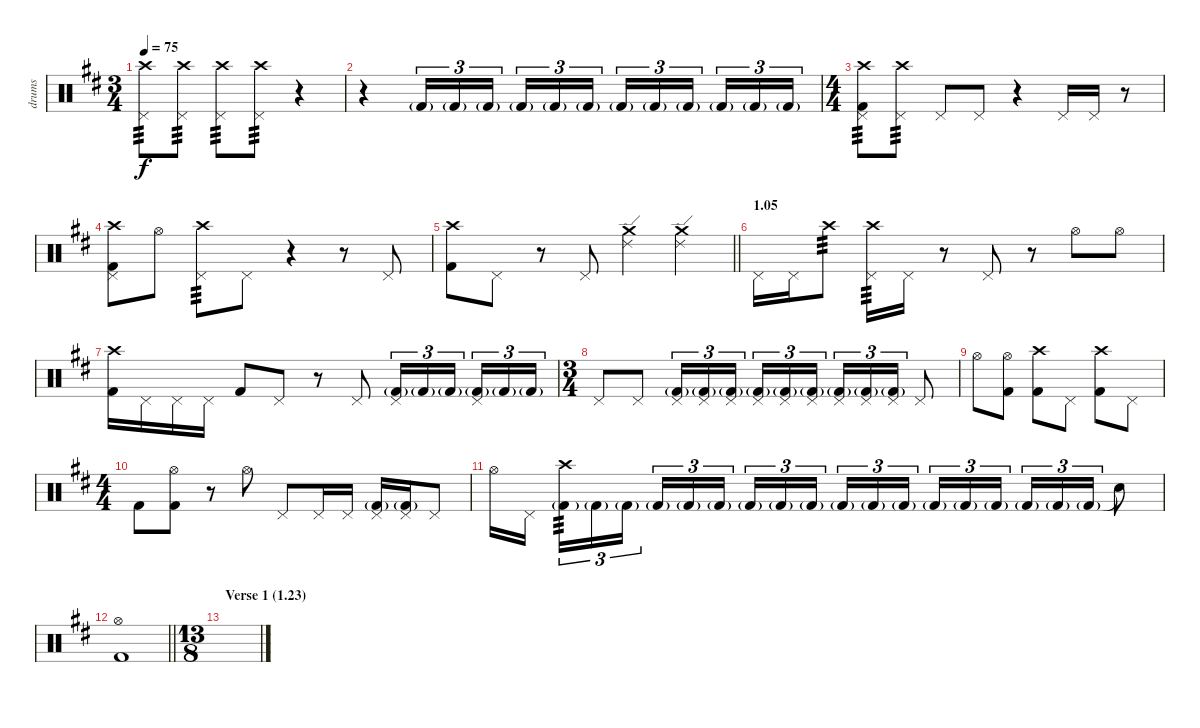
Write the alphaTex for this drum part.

\track ("drums" "drums") {instrument percussion}
\staff {score}
\articulation defaults
\ts (3 4)
\tempo 75
\clef neutral
\ks d
("Pedal Hi-Hat (hit)" "Crash high (hit)").8{tp 3 dy f} ("Pedal Hi-Hat (hit)" "Crash high (hit)").8{tp 3} ("Pedal Hi-Hat (hit)" "Crash high (hit)").8{tp 3} ("Pedal Hi-Hat (hit)" "Crash high (hit)").8{tp 3} r.4 |
r.4 "Kick (hit) 2"{g}.16{tu (3 2)} "Kick (hit) 2"{g}.16{tu (3 2)} "Kick (hit) 2"{g}.16{tu (3 2) beam splitsecondary} "Kick (hit) 2"{g}.16{tu (3 2)} "Kick (hit) 2"{g}.16{tu (3 2)} "Kick (hit) 2"{g}.16{tu (3 2)} "Kick (hit) 2"{g}.16{tu (3 2)} "Kick (hit) 2"{g}.16{tu (3 2)} "Kick (hit) 2"{g}.16{tu (3 2) beam splitsecondary} "Kick (hit) 2"{g}.16{tu (3 2)} "Kick (hit) 2"{g}.16{tu (3 2)} "Kick (hit) 2"{g}.16{tu (3 2)} |
\ts (4 4)
("Pedal Hi-Hat (hit)" "Crash high (hit)" "Kick (hit) 2").8{tp 3} ("Pedal Hi-Hat (hit)" "Crash high (hit)").8{tp 3} "Pedal Hi-Hat (hit)".8 "Pedal Hi-Hat (hit)".8 r.4 "Pedal Hi-Hat (hit)".16 "Pedal Hi-Hat (hit)".16 r.8 |
("Pedal Hi-Hat (hit)" "Crash high (hit)" "Kick (hit) 2").8 "Hi-Hat (open)".8 ("Pedal Hi-Hat (hit)" "Crash high (hit)").8{tp 3} "Pedal Hi-Hat (hit)".8 r.4 r.8 "Pedal Hi-Hat (hit)".8 |
\barLineRight lightlight
("Crash high (hit)" "Kick (hit) 2").8 "Pedal Hi-Hat (hit)".8 r.8 "Pedal Hi-Hat (hit)".8 ("Ride (edge) 2" "Crash medium (hit)").4 ("Ride (edge) 2" "Crash medium (hit)").4 |
\section ("" "1.05")
"Pedal Hi-Hat (hit)".16 "Pedal Hi-Hat (hit)".16 "Crash high (hit)".8{tp 3} ("Pedal Hi-Hat (hit)" "Crash high (hit)").16{tp 3} "Pedal Hi-Hat (hit)".16 r.8 "Pedal Hi-Hat (hit)".8 r.8 "Hi-Hat (open)".8 "Hi-Hat (open)".8 |
("Crash high (hit)" "Kick (hit) 2").16 "Pedal Hi-Hat (hit)".16 "Pedal Hi-Hat (hit)".16 "Pedal Hi-Hat (hit)".16 "Kick (hit) 2".8 "Pedal Hi-Hat (hit)".8 r.8 "Pedal Hi-Hat (hit)".8 ("Pedal Hi-Hat (hit)" "Kick (hit) 2"{g}).16{tu (3 2)} "Kick (hit) 2"{g}.16{tu (3 2)} "Kick (hit) 2"{g}.16{tu (3 2) beam splitsecondary} ("Pedal Hi-Hat (hit)" "Kick (hit) 2"{g}).16{tu (3 2)} "Kick (hit) 2"{g}.16{tu (3 2)} "Kick (hit) 2"{g}.16{tu (3 2)} |
\ts (3 4)
"Pedal Hi-Hat (hit)".8 "Pedal Hi-Hat (hit)".8 ("Pedal Hi-Hat (hit)" "Kick (hit) 2"{g}).16{tu (3 2)} ("Pedal Hi-Hat (hit)" "Kick (hit) 2"{g}).16{tu (3 2)} ("Pedal Hi-Hat (hit)" "Kick (hit) 2"{g}).16{tu (3 2) beam splitsecondary} ("Pedal Hi-Hat (hit)" "Kick (hit) 2"{g}).16{tu (3 2)} ("Pedal Hi-Hat (hit)" "Kick (hit) 2"{g}).16{tu (3 2)} ("Pedal Hi-Hat (hit)" "Kick (hit) 2"{g}).16{tu (3 2)} ("Pedal Hi-Hat (hit)" "Kick (hit) 2"{g}).16{tu (3 2)} ("Pedal Hi-Hat (hit)" "Kick (hit) 2"{g}).16{tu (3 2)} ("Pedal Hi-Hat (hit)" "Kick (hit) 2"{g}).16{tu (3 2)} "Pedal Hi-Hat (hit)".8 |
"Hi-Hat (open)".8 ("Hi-Hat (open)" "Kick (hit) 2").8 ("Crash high (hit)" "Kick (hit) 2").8 "Pedal Hi-Hat (hit)".8 ("Crash high (hit)" "Kick (hit) 2").8 "Pedal Hi-Hat (hit)".8 |
\ts (4 4)
"Kick (hit) 2".8 ("Hi-Hat (open)" "Kick (hit) 2").8 r.8 "Hi-Hat (open)".8 "Pedal Hi-Hat (hit)".8 "Pedal Hi-Hat (hit)".16 "Pedal Hi-Hat (hit)".16 ("Pedal Hi-Hat (hit)" "Kick (hit) 2"{g}).16 ("Pedal Hi-Hat (hit)" "Kick (hit) 2"{g}).16 "Pedal Hi-Hat (hit)".8 |
"Hi-Hat (open)".16 "Pedal Hi-Hat (hit)".16{beam splitsecondary} ("Crash high (hit)" "Kick (hit) 2"{g}).16{tu (3 2) tp 3} "Kick (hit) 2"{g}.16{tu (3 2)} "Kick (hit) 2"{g}.16{tu (3 2)} "Kick (hit) 2"{g}.16{tu (3 2)} "Kick (hit) 2"{g}.16{tu (3 2)} "Kick (hit) 2"{g}.16{tu (3 2) beam splitsecondary} "Kick (hit) 2"{g}.16{tu (3 2)} "Kick (hit) 2"{g}.16{tu (3 2)} "Kick (hit) 2"{g}.16{tu (3 2)} "Kick (hit) 2"{g}.16{tu (3 2)} "Kick (hit) 2"{g}.16{tu (3 2)} "Kick (hit) 2"{g}.16{tu (3 2) beam splitsecondary} "Kick (hit) 2"{g}.16{tu (3 2)} "Kick (hit) 2"{g}.16{tu (3 2)} "Kick (hit) 2"{g}.16{tu (3 2)} "Kick (hit) 2"{g}.16{tu (3 2)} "Kick (hit) 2"{g}.16{tu (3 2)} "Kick (hit) 2"{g}.16{tu (3 2)} "Snare (hit)"{t}.8 |
\barLineRight lightlight
("Hi-Hat (open)" "Kick (hit) 2").1 |
\ts (13 8)
\section ("" "Verse 1 (1.23)")
